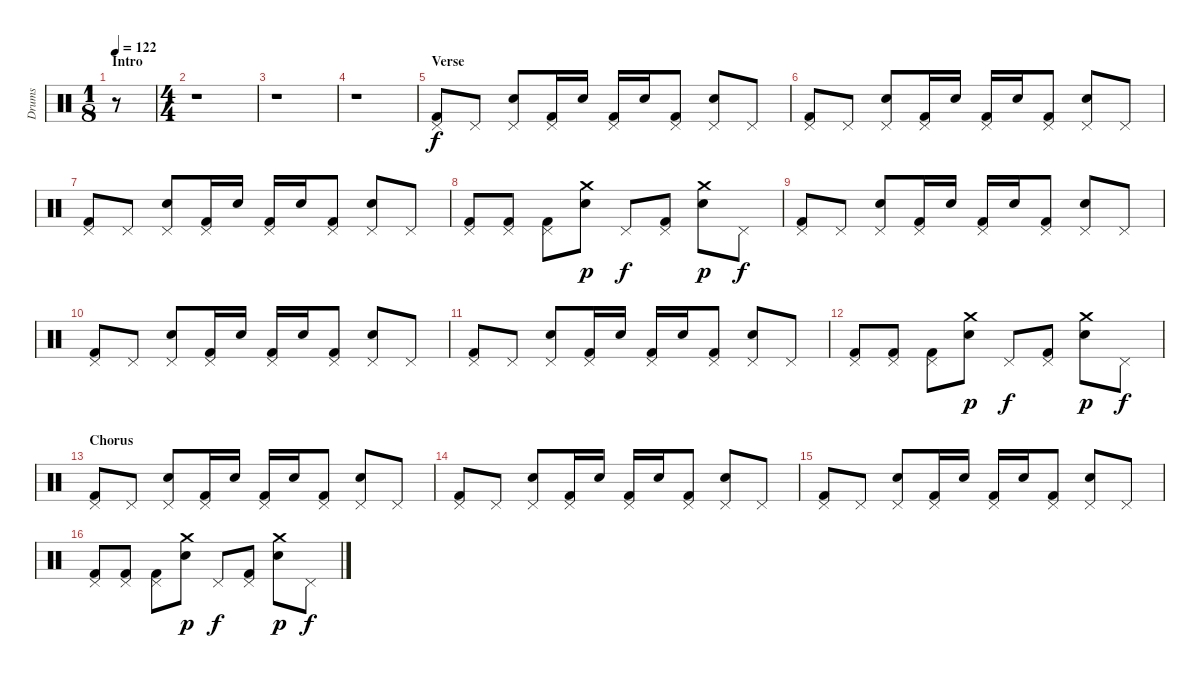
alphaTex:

\track ("Drums" "Drums") {instrument percussion}
\staff {score}
\articulation defaults
\ts (1 8)
\section ("" "Intro")
\tempo 122
\clef neutral
\ks c
r.8{dy f} |
\ts (4 4)
r.1 |
r.1 |
r.1 |
\section ("" "Verse")
("Pedal Hi-Hat (hit)" "Kick (hit) 2").8 "Pedal Hi-Hat (hit)".8 ("Pedal Hi-Hat (hit)" "Electric Snare (hit)").8 ("Pedal Hi-Hat (hit)" "Kick (hit) 2").16 "Electric Snare (hit)".16 ("Pedal Hi-Hat (hit)" "Kick (hit) 2").16 "Electric Snare (hit)".16 ("Pedal Hi-Hat (hit)" "Kick (hit) 2").8 ("Pedal Hi-Hat (hit)" "Electric Snare (hit)").8 "Pedal Hi-Hat (hit)".8 |
("Pedal Hi-Hat (hit)" "Kick (hit) 2").8 "Pedal Hi-Hat (hit)".8 ("Pedal Hi-Hat (hit)" "Electric Snare (hit)").8 ("Pedal Hi-Hat (hit)" "Kick (hit) 2").16 "Electric Snare (hit)".16 ("Pedal Hi-Hat (hit)" "Kick (hit) 2").16 "Electric Snare (hit)".16 ("Pedal Hi-Hat (hit)" "Kick (hit) 2").8 ("Pedal Hi-Hat (hit)" "Electric Snare (hit)").8 "Pedal Hi-Hat (hit)".8 |
("Pedal Hi-Hat (hit)" "Kick (hit) 2").8 "Pedal Hi-Hat (hit)".8 ("Pedal Hi-Hat (hit)" "Electric Snare (hit)").8 ("Pedal Hi-Hat (hit)" "Kick (hit) 2").16 "Electric Snare (hit)".16 ("Pedal Hi-Hat (hit)" "Kick (hit) 2").16 "Electric Snare (hit)".16 ("Pedal Hi-Hat (hit)" "Kick (hit) 2").8 ("Pedal Hi-Hat (hit)" "Electric Snare (hit)").8 "Pedal Hi-Hat (hit)".8 |
("Pedal Hi-Hat (hit)" "Kick (hit) 2").8 ("Pedal Hi-Hat (hit)" "Kick (hit) 2").8 ("Pedal Hi-Hat (hit)" "Kick (hit) 2").8 ("Crash medium (hit)" "Electric Snare (hit)").8{dy p} "Pedal Hi-Hat (hit)".8{dy f} ("Pedal Hi-Hat (hit)" "Kick (hit) 2").8 ("Crash medium (hit)" "Electric Snare (hit)").8{dy p} "Pedal Hi-Hat (hit)".8{dy f} |
("Pedal Hi-Hat (hit)" "Kick (hit) 2").8 "Pedal Hi-Hat (hit)".8 ("Pedal Hi-Hat (hit)" "Electric Snare (hit)").8 ("Pedal Hi-Hat (hit)" "Kick (hit) 2").16 "Electric Snare (hit)".16 ("Pedal Hi-Hat (hit)" "Kick (hit) 2").16 "Electric Snare (hit)".16 ("Pedal Hi-Hat (hit)" "Kick (hit) 2").8 ("Pedal Hi-Hat (hit)" "Electric Snare (hit)").8 "Pedal Hi-Hat (hit)".8 |
("Pedal Hi-Hat (hit)" "Kick (hit) 2").8 "Pedal Hi-Hat (hit)".8 ("Pedal Hi-Hat (hit)" "Electric Snare (hit)").8 ("Pedal Hi-Hat (hit)" "Kick (hit) 2").16 "Electric Snare (hit)".16 ("Pedal Hi-Hat (hit)" "Kick (hit) 2").16 "Electric Snare (hit)".16 ("Pedal Hi-Hat (hit)" "Kick (hit) 2").8 ("Pedal Hi-Hat (hit)" "Electric Snare (hit)").8 "Pedal Hi-Hat (hit)".8 |
("Pedal Hi-Hat (hit)" "Kick (hit) 2").8 "Pedal Hi-Hat (hit)".8 ("Pedal Hi-Hat (hit)" "Electric Snare (hit)").8 ("Pedal Hi-Hat (hit)" "Kick (hit) 2").16 "Electric Snare (hit)".16 ("Pedal Hi-Hat (hit)" "Kick (hit) 2").16 "Electric Snare (hit)".16 ("Pedal Hi-Hat (hit)" "Kick (hit) 2").8 ("Pedal Hi-Hat (hit)" "Electric Snare (hit)").8 "Pedal Hi-Hat (hit)".8 |
("Pedal Hi-Hat (hit)" "Kick (hit) 2").8 ("Pedal Hi-Hat (hit)" "Kick (hit) 2").8 ("Pedal Hi-Hat (hit)" "Kick (hit) 2").8 ("Crash medium (hit)" "Electric Snare (hit)").8{dy p} "Pedal Hi-Hat (hit)".8{dy f} ("Pedal Hi-Hat (hit)" "Kick (hit) 2").8 ("Crash medium (hit)" "Electric Snare (hit)").8{dy p} "Pedal Hi-Hat (hit)".8{dy f} |
\section ("" "Chorus")
("Pedal Hi-Hat (hit)" "Kick (hit) 2").8 "Pedal Hi-Hat (hit)".8 ("Pedal Hi-Hat (hit)" "Electric Snare (hit)").8 ("Pedal Hi-Hat (hit)" "Kick (hit) 2").16 "Electric Snare (hit)".16 ("Pedal Hi-Hat (hit)" "Kick (hit) 2").16 "Electric Snare (hit)".16 ("Pedal Hi-Hat (hit)" "Kick (hit) 2").8 ("Pedal Hi-Hat (hit)" "Electric Snare (hit)").8 "Pedal Hi-Hat (hit)".8 |
("Pedal Hi-Hat (hit)" "Kick (hit) 2").8 "Pedal Hi-Hat (hit)".8 ("Pedal Hi-Hat (hit)" "Electric Snare (hit)").8 ("Pedal Hi-Hat (hit)" "Kick (hit) 2").16 "Electric Snare (hit)".16 ("Pedal Hi-Hat (hit)" "Kick (hit) 2").16 "Electric Snare (hit)".16 ("Pedal Hi-Hat (hit)" "Kick (hit) 2").8 ("Pedal Hi-Hat (hit)" "Electric Snare (hit)").8 "Pedal Hi-Hat (hit)".8 |
("Pedal Hi-Hat (hit)" "Kick (hit) 2").8 "Pedal Hi-Hat (hit)".8 ("Pedal Hi-Hat (hit)" "Electric Snare (hit)").8 ("Pedal Hi-Hat (hit)" "Kick (hit) 2").16 "Electric Snare (hit)".16 ("Pedal Hi-Hat (hit)" "Kick (hit) 2").16 "Electric Snare (hit)".16 ("Pedal Hi-Hat (hit)" "Kick (hit) 2").8 ("Pedal Hi-Hat (hit)" "Electric Snare (hit)").8 "Pedal Hi-Hat (hit)".8 |
("Pedal Hi-Hat (hit)" "Kick (hit) 2").8 ("Pedal Hi-Hat (hit)" "Kick (hit) 2").8 ("Pedal Hi-Hat (hit)" "Kick (hit) 2").8 ("Crash medium (hit)" "Electric Snare (hit)").8{dy p} "Pedal Hi-Hat (hit)".8{dy f} ("Pedal Hi-Hat (hit)" "Kick (hit) 2").8 ("Crash medium (hit)" "Electric Snare (hit)").8{dy p} "Pedal Hi-Hat (hit)".8{dy f}
